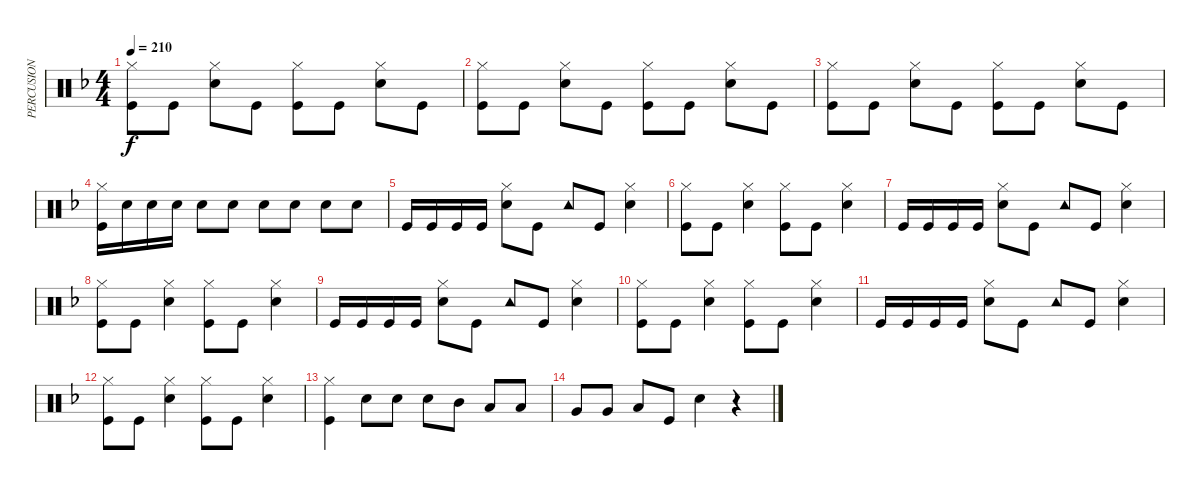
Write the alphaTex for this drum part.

\track ("PERCUSION" "PERCUSION") {instrument percussion}
\staff {score}
\articulation defaults
\ts (4 4)
\tempo 210
\clef neutral
\ks f
("Hi-Hat (closed)" "Kick (hit)").8{dy f} "Kick (hit)".8 ("Hi-Hat (closed)" "Snare (hit) 2").8 "Kick (hit)".8 ("Hi-Hat (closed)" "Kick (hit)").8 "Kick (hit)".8 ("Hi-Hat (closed)" "Snare (hit) 2").8 "Kick (hit)".8 |
("Hi-Hat (closed)" "Kick (hit)").8 "Kick (hit)".8 ("Hi-Hat (closed)" "Snare (hit) 2").8 "Kick (hit)".8 ("Hi-Hat (closed)" "Kick (hit)").8 "Kick (hit)".8 ("Hi-Hat (closed)" "Snare (hit) 2").8 "Kick (hit)".8 |
("Hi-Hat (closed)" "Kick (hit)").8 "Kick (hit)".8 ("Hi-Hat (closed)" "Snare (hit) 2").8 "Kick (hit)".8 ("Hi-Hat (closed)" "Kick (hit)").8 "Kick (hit)".8 ("Hi-Hat (closed)" "Snare (hit) 2").8 "Kick (hit)".8 |
("Hi-Hat (closed)" "Kick (hit)").16 "Snare (hit) 2".16 "Snare (hit) 2".16 "Snare (hit) 2".16 "Snare (hit) 2".8 "Snare (hit) 2".8 "Snare (hit) 2".8 "Snare (hit) 2".8 "Snare (hit) 2".8 "Snare (hit) 2".8 |
"Kick (hit)".16 "Kick (hit)".16 "Kick (hit)".16 "Kick (hit)".16 ("Hi-Hat (closed)" "Snare (hit) 2").8 "Kick (hit)".8 "Tambourine (hit)".8 "Kick (hit)".8 ("Hi-Hat (closed)" "Snare (hit) 2").4 |
("Hi-Hat (closed)" "Kick (hit)").8 "Kick (hit)".8 ("Hi-Hat (closed)" "Snare (hit) 2").4 ("Hi-Hat (closed)" "Kick (hit)").8 "Kick (hit)".8 ("Hi-Hat (closed)" "Snare (hit) 2").4 |
"Kick (hit)".16 "Kick (hit)".16 "Kick (hit)".16 "Kick (hit)".16 ("Hi-Hat (closed)" "Snare (hit) 2").8 "Kick (hit)".8 "Tambourine (hit)".8 "Kick (hit)".8 ("Hi-Hat (closed)" "Snare (hit) 2").4 |
("Hi-Hat (closed)" "Kick (hit)").8 "Kick (hit)".8 ("Hi-Hat (closed)" "Snare (hit) 2").4 ("Hi-Hat (closed)" "Kick (hit)").8 "Kick (hit)".8 ("Hi-Hat (closed)" "Snare (hit) 2").4 |
"Kick (hit)".16 "Kick (hit)".16 "Kick (hit)".16 "Kick (hit)".16 ("Hi-Hat (closed)" "Snare (hit) 2").8 "Kick (hit)".8 "Tambourine (hit)".8 "Kick (hit)".8 ("Hi-Hat (closed)" "Snare (hit) 2").4 |
("Hi-Hat (closed)" "Kick (hit)").8 "Kick (hit)".8 ("Hi-Hat (closed)" "Snare (hit) 2").4 ("Hi-Hat (closed)" "Kick (hit)").8 "Kick (hit)".8 ("Hi-Hat (closed)" "Snare (hit) 2").4 |
"Kick (hit)".16 "Kick (hit)".16 "Kick (hit)".16 "Kick (hit)".16 ("Hi-Hat (closed)" "Snare (hit) 2").8 "Kick (hit)".8 "Tambourine (hit)".8 "Kick (hit)".8 ("Hi-Hat (closed)" "Snare (hit) 2").4 |
("Hi-Hat (closed)" "Kick (hit)").8 "Kick (hit)".8 ("Hi-Hat (closed)" "Snare (hit) 2").4 ("Hi-Hat (closed)" "Kick (hit)").8 "Kick (hit)".8 ("Hi-Hat (closed)" "Snare (hit) 2").4 |
("Hi-Hat (closed)" "Kick (hit)").4 "Snare (hit) 2".8 "Snare (hit) 2".8 "Snare (hit) 2".8 "Mid Tom (hit)".8 "Low Tom (hit)".8 "Low Tom (hit)".8 |
"Very Low Tom (hit)".8 "Very Low Tom (hit)".8 "Low Floor Tom (hit)".8 "Kick (hit)".8 "Snare (hit) 2".4 r.4
